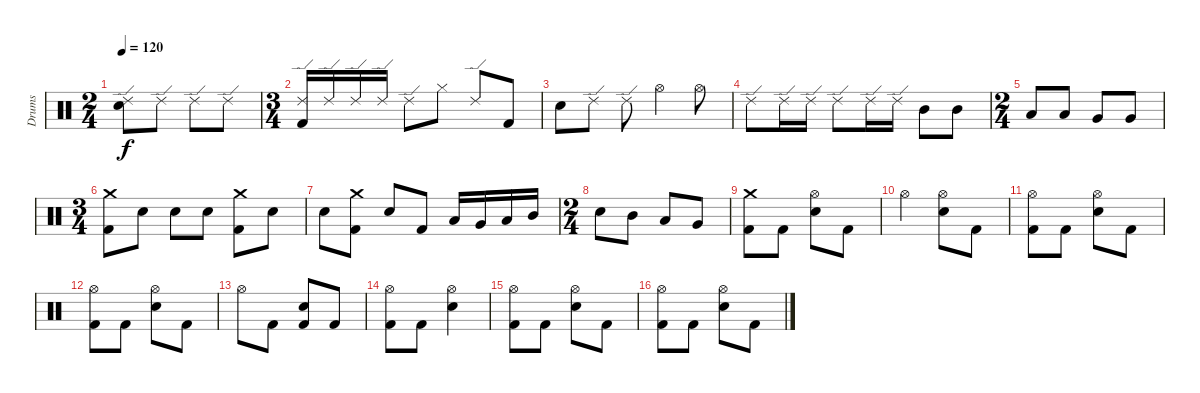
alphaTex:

\track ("Drums" "Drums") {instrument percussion}
\staff {score}
\articulation defaults
\ts (2 4)
\tempo 120
\clef neutral
\ks c
("Electric Snare (hit)" "Ride (edge) 2").8{dy f} "Ride (edge) 2".8 "Ride (edge) 2".8 "Ride (edge) 2".8 |
\ts (3 4)
("Ride (edge) 2" "Kick (hit) 2").16 "Ride (edge) 2".16 "Ride (edge) 2".16 "Ride (edge) 2".16 "Ride (edge) 2".8 "Hi-Hat (closed)".8 "Ride (edge) 2".8 "Kick (hit) 2".8 |
"Electric Snare (hit)".8 "Ride (edge) 2".8 "Ride (edge) 2".8 "Hi-Hat (open)".4 "Hi-Hat (open)".8 |
"Ride (edge) 2".8 "Ride (edge) 2".16 "Ride (edge) 2".16 "Ride (edge) 2".8 "Ride (edge) 2".16 "Ride (edge) 2".16 "Mid Tom (hit)".8 "Mid Tom (hit)".8 |
\ts (2 4)
"Low Tom (hit)".8 "Low Tom (hit)".8 "Very Low Tom (hit)".8 "Very Low Tom (hit)".8 |
\ts (3 4)
("Crash medium (hit)" "Kick (hit) 2").8 "Electric Snare (hit)".8 "Electric Snare (hit)".8 "Electric Snare (hit)".8 ("Crash medium (hit)" "Kick (hit) 2").8 "Electric Snare (hit)".8 |
"Electric Snare (hit)".8 ("Crash medium (hit)" "Kick (hit) 2").8 "Electric Snare (hit)".8 "Kick (hit) 2".8 "Low Floor Tom (hit)".16 "Very Low Tom (hit)".16 "Low Tom (hit)".16 "Mid Tom (hit)".16 |
\ts (2 4)
"Electric Snare (hit)".8 "Mid Tom (hit)".8 "Low Tom (hit)".8 "Very Low Tom (hit)".8 |
("Crash medium (hit)" "Kick (hit) 2").8 "Kick (hit) 2".8 ("Electric Snare (hit)" "Hi-Hat (open)").8 "Kick (hit) 2".8 |
"Hi-Hat (open)".4 ("Electric Snare (hit)" "Hi-Hat (open)").8 "Kick (hit) 2".8 |
("Hi-Hat (open)" "Kick (hit) 2").8 "Kick (hit) 2".8 ("Electric Snare (hit)" "Hi-Hat (open)").8 "Kick (hit) 2".8 |
("Hi-Hat (open)" "Kick (hit) 2").8 "Kick (hit) 2".8 ("Electric Snare (hit)" "Hi-Hat (open)").8 "Kick (hit) 2".8 |
"Hi-Hat (open)".8 "Kick (hit) 2".8 ("Electric Snare (hit)" "Kick (hit) 2").8 "Kick (hit) 2".8 |
("Hi-Hat (open)" "Kick (hit) 2").8 "Kick (hit) 2".8 ("Electric Snare (hit)" "Hi-Hat (open)").4 |
("Hi-Hat (open)" "Kick (hit) 2").8 "Kick (hit) 2".8 ("Electric Snare (hit)" "Hi-Hat (open)").8 "Kick (hit) 2".8 |
("Hi-Hat (open)" "Kick (hit) 2").8 "Kick (hit) 2".8 ("Electric Snare (hit)" "Hi-Hat (open)").8 "Kick (hit) 2".8
